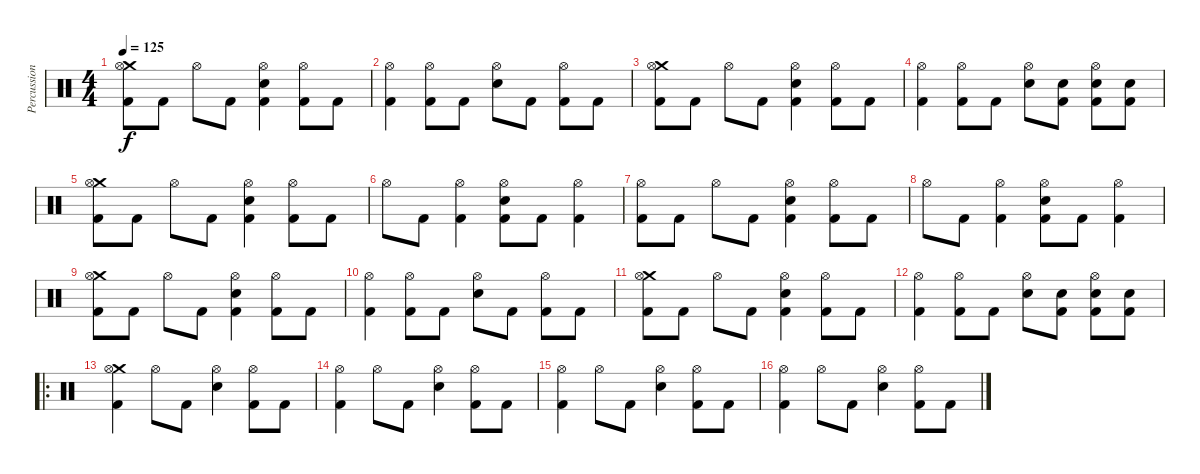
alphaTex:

\track ("Percussion" "Percussion") {instrument percussion}
\staff {score}
\articulation defaults
\ts (4 4)
\tempo 125
\clef neutral
\ks c
("Crash medium (hit)" "Hi-Hat (open)" "Kick (hit) 2").8{dy f} "Kick (hit) 2".8 "Hi-Hat (open)".8 "Kick (hit) 2".8 ("Hi-Hat (open)" "Electric Snare (hit)" "Kick (hit) 2").4 ("Hi-Hat (open)" "Kick (hit) 2").8 "Kick (hit) 2".8 |
("Hi-Hat (open)" "Kick (hit) 2").4 ("Hi-Hat (open)" "Kick (hit) 2").8 "Kick (hit) 2".8 ("Hi-Hat (open)" "Electric Snare (hit)").8 "Kick (hit) 2".8 ("Hi-Hat (open)" "Kick (hit) 2").8 "Kick (hit) 2".8 |
("Crash medium (hit)" "Hi-Hat (open)" "Kick (hit) 2").8 "Kick (hit) 2".8 "Hi-Hat (open)".8 "Kick (hit) 2".8 ("Hi-Hat (open)" "Electric Snare (hit)" "Kick (hit) 2").4 ("Hi-Hat (open)" "Kick (hit) 2").8 "Kick (hit) 2".8 |
("Hi-Hat (open)" "Kick (hit) 2").4 ("Hi-Hat (open)" "Kick (hit) 2").8 "Kick (hit) 2".8 ("Hi-Hat (open)" "Electric Snare (hit)").8 ("Electric Snare (hit)" "Kick (hit) 2").8 ("Hi-Hat (open)" "Electric Snare (hit)" "Kick (hit) 2").8 ("Electric Snare (hit)" "Kick (hit) 2").8 |
("Crash medium (hit)" "Hi-Hat (open)" "Kick (hit) 2").8 "Kick (hit) 2".8 "Hi-Hat (open)".8 "Kick (hit) 2".8 ("Hi-Hat (open)" "Electric Snare (hit)" "Kick (hit) 2").4 ("Hi-Hat (open)" "Kick (hit) 2").8 "Kick (hit) 2".8 |
"Hi-Hat (open)".8 "Kick (hit) 2".8 ("Hi-Hat (open)" "Kick (hit) 2").4 ("Hi-Hat (open)" "Electric Snare (hit)" "Kick (hit) 2").8 "Kick (hit) 2".8 ("Hi-Hat (open)" "Kick (hit) 2").4 |
("Hi-Hat (open)" "Kick (hit) 2").8 "Kick (hit) 2".8 "Hi-Hat (open)".8 "Kick (hit) 2".8 ("Hi-Hat (open)" "Electric Snare (hit)" "Kick (hit) 2").4 ("Hi-Hat (open)" "Kick (hit) 2").8 "Kick (hit) 2".8 |
"Hi-Hat (open)".8 "Kick (hit) 2".8 ("Hi-Hat (open)" "Kick (hit) 2").4 ("Hi-Hat (open)" "Electric Snare (hit)" "Kick (hit) 2").8 "Kick (hit) 2".8 ("Hi-Hat (open)" "Kick (hit) 2").4 |
("Crash medium (hit)" "Hi-Hat (open)" "Kick (hit) 2").8 "Kick (hit) 2".8 "Hi-Hat (open)".8 "Kick (hit) 2".8 ("Hi-Hat (open)" "Electric Snare (hit)" "Kick (hit) 2").4 ("Hi-Hat (open)" "Kick (hit) 2").8 "Kick (hit) 2".8 |
("Hi-Hat (open)" "Kick (hit) 2").4 ("Hi-Hat (open)" "Kick (hit) 2").8 "Kick (hit) 2".8 ("Hi-Hat (open)" "Electric Snare (hit)").8 "Kick (hit) 2".8 ("Hi-Hat (open)" "Kick (hit) 2").8 "Kick (hit) 2".8 |
("Crash medium (hit)" "Hi-Hat (open)" "Kick (hit) 2").8 "Kick (hit) 2".8 "Hi-Hat (open)".8 "Kick (hit) 2".8 ("Hi-Hat (open)" "Electric Snare (hit)" "Kick (hit) 2").4 ("Hi-Hat (open)" "Kick (hit) 2").8 "Kick (hit) 2".8 |
("Hi-Hat (open)" "Kick (hit) 2").4 ("Hi-Hat (open)" "Kick (hit) 2").8 "Kick (hit) 2".8 ("Hi-Hat (open)" "Electric Snare (hit)").8 ("Electric Snare (hit)" "Kick (hit) 2").8 ("Hi-Hat (open)" "Electric Snare (hit)" "Kick (hit) 2").8 ("Electric Snare (hit)" "Kick (hit) 2").8 |
\ro
("Crash medium (hit)" "Hi-Hat (open)" "Kick (hit) 2").4 "Hi-Hat (open)".8 "Kick (hit) 2".8 ("Hi-Hat (open)" "Electric Snare (hit)").4 ("Hi-Hat (open)" "Kick (hit) 2").8 "Kick (hit) 2".8 |
("Hi-Hat (open)" "Kick (hit) 2").4 "Hi-Hat (open)".8 "Kick (hit) 2".8 ("Hi-Hat (open)" "Electric Snare (hit)").4 ("Hi-Hat (open)" "Kick (hit) 2").8 "Kick (hit) 2".8 |
("Hi-Hat (open)" "Kick (hit) 2").4 "Hi-Hat (open)".8 "Kick (hit) 2".8 ("Hi-Hat (open)" "Electric Snare (hit)").4 ("Hi-Hat (open)" "Kick (hit) 2").8 "Kick (hit) 2".8 |
("Hi-Hat (open)" "Kick (hit) 2").4 "Hi-Hat (open)".8 "Kick (hit) 2".8 ("Hi-Hat (open)" "Electric Snare (hit)").4 ("Hi-Hat (open)" "Kick (hit) 2").8 "Kick (hit) 2".8
